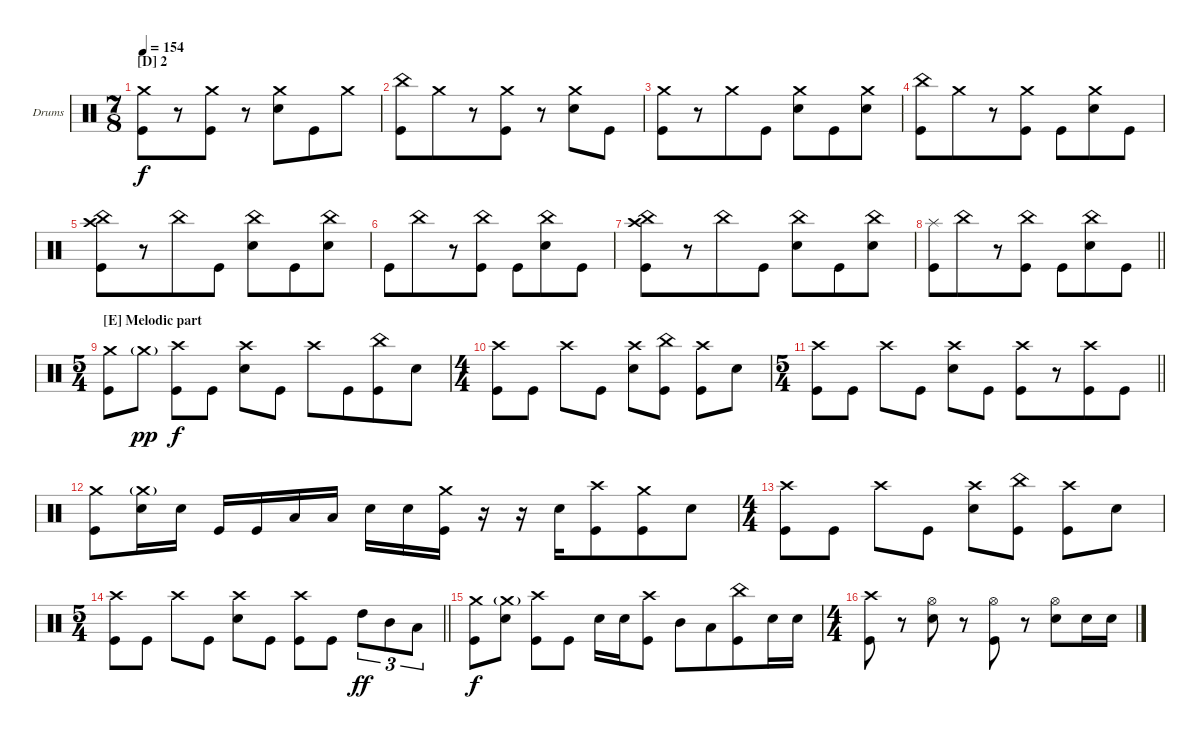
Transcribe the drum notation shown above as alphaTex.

\bracketExtendMode groupsimilarinstruments
\firstSystemTrackNameOrientation horizontal
\otherSystemsTrackNameOrientation horizontal
\track ("Navene Koperweis" "Drums") {instrument percussion}
\staff {score}
\articulation defaults
\ts (7 8)
\section ("D" "2")
\tempo 154
\clef neutral
\ks c
("Crash medium (hit)" "Kick (hit)").8{dy f} r.8 ("Crash medium (hit)" "Kick (hit)").8 r.8 ("Crash medium (hit)" "Snare (hit) 2").8 "Kick (hit)".8 "Crash medium (hit)".8 |
("China (hit)" "Kick (hit)").8 "Crash medium (hit)".8 r.8 ("Crash medium (hit)" "Kick (hit)").8 r.8 ("Crash medium (hit)" "Snare (hit) 2").8 "Kick (hit)".8 |
("Crash medium (hit)" "Kick (hit)").8 r.8 "Crash medium (hit)".8 "Kick (hit)".8 ("Crash medium (hit)" "Snare (hit) 2").8 "Kick (hit)".8 ("Crash medium (hit)" "Snare (hit) 2").8 |
("China (hit)" "Kick (hit)").8 "Crash medium (hit)".8 r.8 ("Crash medium (hit)" "Kick (hit)").8 "Kick (hit)".8 ("Crash medium (hit)" "Snare (hit) 2").8 "Kick (hit)".8 |
("Crash high (hit)" "China (hit)" "Kick (hit)").8 r.8 "China (hit)".8 "Kick (hit)".8 ("China (hit)" "Snare (hit) 2").8 "Kick (hit)".8 ("China (hit)" "Snare (hit) 2").8 |
"Kick (hit)".8 "China (hit)".8 r.8 ("China (hit)" "Kick (hit)").8 "Kick (hit)".8 ("China (hit)" "Snare (hit) 2").8 "Kick (hit)".8 |
("Crash high (hit)" "China (hit)" "Kick (hit)").8 r.8 "China (hit)".8 "Kick (hit)".8 ("China (hit)" "Snare (hit) 2").8 "Kick (hit)".8 ("China (hit)" "Snare (hit) 2").8 |
\barLineRight lightlight
("Splash (hit)" "Kick (hit)").8 "China (hit)".8 r.8 ("China (hit)" "Kick (hit)").8 "Kick (hit)".8 ("China (hit)" "Snare (hit) 2").8 "Kick (hit)".8 |
\ts (5 4)
\beaming (8 2 2 2 4)
\section ("E" "Melodic part")
("Crash medium (hit)" "Kick (hit)").8 "Crash medium (hit)"{g}.8{dy pp} ("Crash high (hit)" "Kick (hit)").8{dy f} "Kick (hit)".8 ("Crash high (hit)" "Snare (hit) 2").8 "Kick (hit)".8 "Crash high (hit)".8 "Kick (hit)".8 ("China (hit)" "Kick (hit)").8 "Snare (hit) 2".8 |
\ts (4 4)
\beaming (8 2 2 2 2)
("Crash high (hit)" "Kick (hit)").8 "Kick (hit)".8 "Crash high (hit)".8 "Kick (hit)".8 ("Crash high (hit)" "Snare (hit) 2").8 ("China (hit)" "Kick (hit)").8 ("Crash high (hit)" "Kick (hit)").8 "Snare (hit) 2".8 |
\ts (5 4)
\beaming (8 2 2 2 4)
\barLineRight lightlight
("Crash high (hit)" "Kick (hit)").8 "Kick (hit)".8 "Crash high (hit)".8 "Kick (hit)".8 ("Crash high (hit)" "Snare (hit) 2").8 "Kick (hit)".8 ("Crash high (hit)" "Kick (hit)").8 r.8 ("Crash high (hit)" "Kick (hit)").8 "Kick (hit)".8 |
\section ("" "")
("Crash medium (hit)" "Kick (hit)").8 ("Crash medium (hit)"{g} "Snare (hit) 2").16 "Snare (hit) 2".16 "Kick (hit)".16 "Kick (hit)".16 "Low Tom (hit)".16 "Low Tom (hit)".16 "Snare (hit) 2".16 "Snare (hit) 2".16 ("Crash medium (hit)" "Kick (hit)").16 r.16 r.16 "Snare (hit) 2".16 ("Crash high (hit)" "Kick (hit)").8 ("Crash medium (hit)" "Kick (hit)").8 "Snare (hit) 2".8 |
\ts (4 4)
\beaming (8 2 2 2 2)
("Crash high (hit)" "Kick (hit)").8 "Kick (hit)".8 "Crash high (hit)".8 "Kick (hit)".8 ("Crash high (hit)" "Snare (hit) 2").8 ("China (hit)" "Kick (hit)").8 ("Crash high (hit)" "Kick (hit)").8 "Snare (hit) 2".8 |
\ts (5 4)
\beaming (8 2 2 2 4)
\barLineRight lightlight
("Crash high (hit)" "Kick (hit)").8 "Kick (hit)".8 "Crash high (hit)".8 "Kick (hit)".8 ("Crash high (hit)" "Snare (hit) 2").8 "Kick (hit)".8 ("Crash high (hit)" "Kick (hit)").8 "Kick (hit)".8 "High Tom (hit)".8{tu (3 2) dy ff} "Mid Tom (hit)".8{tu (3 2)} "Low Tom (hit)".8{tu (3 2)} |
\section ("" "")
("Crash medium (hit)" "Kick (hit)").8{dy f} ("Crash medium (hit)"{g} "Snare (hit) 2").8 ("Crash high (hit)" "Kick (hit)").8 "Kick (hit)".8 "Snare (hit) 2".16 "Snare (hit) 2".16 ("Crash high (hit)" "Kick (hit)").8 "Mid Tom (hit)".8 "Low Tom (hit)".8 ("China (hit)" "Kick (hit)").8 "Snare (hit) 2".16 "Snare (hit) 2".16 |
\ts (4 4)
\beaming (8 2 2 2 2)
("Crash high (hit)" "Kick (hit)").8 r.8 ("Hi-Hat (open)" "Snare (hit) 2").8 r.8 ("Hi-Hat (open)" "Kick (hit)").8 r.8 ("Hi-Hat (open)" "Snare (hit) 2").8 "Snare (hit) 2".16 "Snare (hit) 2".16
